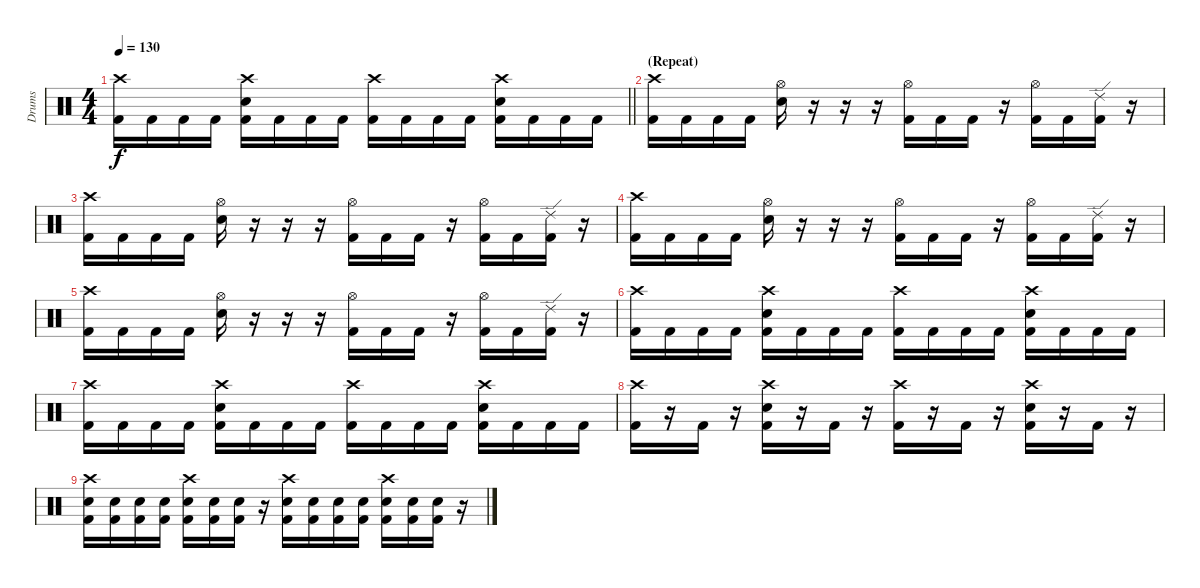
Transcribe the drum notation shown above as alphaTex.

\track ("Drums" "Drums") {instrument percussion}
\staff {score}
\articulation defaults
\ts (4 4)
\tempo 130
\clef neutral
\barLineRight lightlight
\ks c
("Crash high (hit)" "Kick (hit) 2").16{dy f} "Kick (hit) 2".16 "Kick (hit) 2".16 "Kick (hit) 2".16 ("Crash high (hit)" "Electric Snare (hit)" "Kick (hit) 2").16 "Kick (hit) 2".16 "Kick (hit) 2".16 "Kick (hit) 2".16 ("Crash high (hit)" "Kick (hit) 2").16 "Kick (hit) 2".16 "Kick (hit) 2".16 "Kick (hit) 2".16 ("Crash high (hit)" "Electric Snare (hit)" "Kick (hit) 2").16 "Kick (hit) 2".16 "Kick (hit) 2".16 "Kick (hit) 2".16 |
\section ("" "(Repeat)")
("Crash high (hit)" "Kick (hit) 2").16 "Kick (hit) 2".16 "Kick (hit) 2".16 "Kick (hit) 2".16 ("Hi-Hat (open)" "Electric Snare (hit)").16 r.16 r.16 r.16 ("Hi-Hat (open)" "Kick (hit) 2").16 "Kick (hit) 2".16 "Kick (hit) 2".16 r.16 ("Hi-Hat (open)" "Kick (hit) 2").16 "Kick (hit) 2".16 ("Ride (edge) 2" "Kick (hit) 2").16 r.16 |
("Crash high (hit)" "Kick (hit) 2").16 "Kick (hit) 2".16 "Kick (hit) 2".16 "Kick (hit) 2".16 ("Hi-Hat (open)" "Electric Snare (hit)").16 r.16 r.16 r.16 ("Hi-Hat (open)" "Kick (hit) 2").16 "Kick (hit) 2".16 "Kick (hit) 2".16 r.16 ("Hi-Hat (open)" "Kick (hit) 2").16 "Kick (hit) 2".16 ("Ride (edge) 2" "Kick (hit) 2").16 r.16 |
("Crash high (hit)" "Kick (hit) 2").16 "Kick (hit) 2".16 "Kick (hit) 2".16 "Kick (hit) 2".16 ("Hi-Hat (open)" "Electric Snare (hit)").16 r.16 r.16 r.16 ("Hi-Hat (open)" "Kick (hit) 2").16 "Kick (hit) 2".16 "Kick (hit) 2".16 r.16 ("Hi-Hat (open)" "Kick (hit) 2").16 "Kick (hit) 2".16 ("Ride (edge) 2" "Kick (hit) 2").16 r.16 |
("Crash high (hit)" "Kick (hit) 2").16 "Kick (hit) 2".16 "Kick (hit) 2".16 "Kick (hit) 2".16 ("Hi-Hat (open)" "Electric Snare (hit)").16 r.16 r.16 r.16 ("Hi-Hat (open)" "Kick (hit) 2").16 "Kick (hit) 2".16 "Kick (hit) 2".16 r.16 ("Hi-Hat (open)" "Kick (hit) 2").16 "Kick (hit) 2".16 ("Ride (edge) 2" "Kick (hit) 2").16 r.16 |
("Crash high (hit)" "Kick (hit) 2").16 "Kick (hit) 2".16 "Kick (hit) 2".16 "Kick (hit) 2".16 ("Crash high (hit)" "Electric Snare (hit)" "Kick (hit) 2").16 "Kick (hit) 2".16 "Kick (hit) 2".16 "Kick (hit) 2".16 ("Crash high (hit)" "Kick (hit) 2").16 "Kick (hit) 2".16 "Kick (hit) 2".16 "Kick (hit) 2".16 ("Crash high (hit)" "Electric Snare (hit)" "Kick (hit) 2").16 "Kick (hit) 2".16 "Kick (hit) 2".16 "Kick (hit) 2".16 |
("Crash high (hit)" "Kick (hit) 2").16 "Kick (hit) 2".16 "Kick (hit) 2".16 "Kick (hit) 2".16 ("Crash high (hit)" "Electric Snare (hit)" "Kick (hit) 2").16 "Kick (hit) 2".16 "Kick (hit) 2".16 "Kick (hit) 2".16 ("Crash high (hit)" "Kick (hit) 2").16 "Kick (hit) 2".16 "Kick (hit) 2".16 "Kick (hit) 2".16 ("Crash high (hit)" "Electric Snare (hit)" "Kick (hit) 2").16 "Kick (hit) 2".16 "Kick (hit) 2".16 "Kick (hit) 2".16 |
("Crash high (hit)" "Kick (hit) 2").16 r.16 "Kick (hit) 2".16 r.16 ("Crash high (hit)" "Electric Snare (hit)" "Kick (hit) 2").16 r.16 "Kick (hit) 2".16 r.16 ("Crash high (hit)" "Kick (hit) 2").16 r.16 "Kick (hit) 2".16 r.16 ("Crash high (hit)" "Electric Snare (hit)" "Kick (hit) 2").16 r.16 "Kick (hit) 2".16 r.16 |
("Crash high (hit)" "Electric Snare (hit)" "Kick (hit) 2").16 ("Electric Snare (hit)" "Kick (hit) 2").16 ("Electric Snare (hit)" "Kick (hit) 2").16 ("Electric Snare (hit)" "Kick (hit) 2").16 ("Crash high (hit)" "Electric Snare (hit)" "Kick (hit) 2").16 ("Electric Snare (hit)" "Kick (hit) 2").16 ("Electric Snare (hit)" "Kick (hit) 2").16 r.16 ("Crash high (hit)" "Electric Snare (hit)" "Kick (hit) 2").16 ("Electric Snare (hit)" "Kick (hit) 2").16 ("Electric Snare (hit)" "Kick (hit) 2").16 ("Electric Snare (hit)" "Kick (hit) 2").16 ("Crash high (hit)" "Electric Snare (hit)" "Kick (hit) 2").16 ("Electric Snare (hit)" "Kick (hit) 2").16 ("Electric Snare (hit)" "Kick (hit) 2").16 r.16
